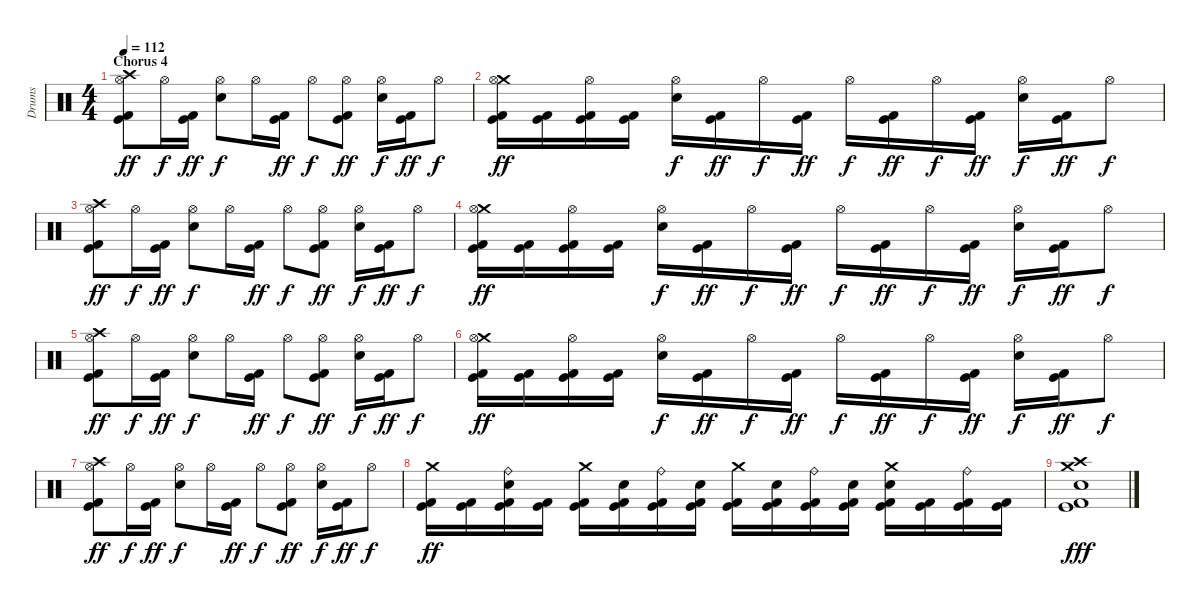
\track ("Drums" "Drums") {instrument percussion}
\staff {score}
\articulation defaults
\ts (4 4)
\section ("" "Chorus 4")
\tempo 112
\clef neutral
\ks c
("Crash high (hit)" "Hi-Hat (open)" "Kick (hit)" "Kick (hit) 2").8{dy ff} "Hi-Hat (open)".16{dy f} ("Kick (hit)" "Kick (hit) 2").16{dy ff} ("Hi-Hat (open)" "Snare (hit) 2").8{dy f} "Hi-Hat (open)".16 ("Kick (hit)" "Kick (hit) 2").16{dy ff} "Hi-Hat (open)".8{dy f} ("Hi-Hat (open)" "Kick (hit)" "Kick (hit) 2").8{dy ff} ("Hi-Hat (open)" "Snare (hit) 2").16{dy f} ("Kick (hit)" "Kick (hit) 2").16{dy ff} "Hi-Hat (open)".8{dy f} |
("Crash medium (hit)" "Hi-Hat (open)" "Kick (hit)" "Kick (hit) 2").16{dy ff} ("Kick (hit)" "Kick (hit) 2").16 ("Hi-Hat (open)" "Kick (hit)" "Kick (hit) 2").16 ("Kick (hit)" "Kick (hit) 2").16 ("Hi-Hat (open)" "Snare (hit) 2").16{dy f} ("Kick (hit)" "Kick (hit) 2").16{dy ff} "Hi-Hat (open)".16{dy f} ("Kick (hit)" "Kick (hit) 2").16{dy ff} "Hi-Hat (open)".16{dy f} ("Kick (hit)" "Kick (hit) 2").16{dy ff} "Hi-Hat (open)".16{dy f} ("Kick (hit)" "Kick (hit) 2").16{dy ff} ("Hi-Hat (open)" "Snare (hit) 2").16{dy f} ("Kick (hit)" "Kick (hit) 2").16{dy ff} "Hi-Hat (open)".8{dy f} |
("Crash high (hit)" "Hi-Hat (open)" "Kick (hit)" "Kick (hit) 2").8{dy ff} "Hi-Hat (open)".16{dy f} ("Kick (hit)" "Kick (hit) 2").16{dy ff} ("Hi-Hat (open)" "Snare (hit) 2").8{dy f} "Hi-Hat (open)".16 ("Kick (hit)" "Kick (hit) 2").16{dy ff} "Hi-Hat (open)".8{dy f} ("Hi-Hat (open)" "Kick (hit)" "Kick (hit) 2").8{dy ff} ("Hi-Hat (open)" "Snare (hit) 2").16{dy f} ("Kick (hit)" "Kick (hit) 2").16{dy ff} "Hi-Hat (open)".8{dy f} |
("Crash medium (hit)" "Hi-Hat (open)" "Kick (hit)" "Kick (hit) 2").16{dy ff} ("Kick (hit)" "Kick (hit) 2").16 ("Hi-Hat (open)" "Kick (hit)" "Kick (hit) 2").16 ("Kick (hit)" "Kick (hit) 2").16 ("Hi-Hat (open)" "Snare (hit) 2").16{dy f} ("Kick (hit)" "Kick (hit) 2").16{dy ff} "Hi-Hat (open)".16{dy f} ("Kick (hit)" "Kick (hit) 2").16{dy ff} "Hi-Hat (open)".16{dy f} ("Kick (hit)" "Kick (hit) 2").16{dy ff} "Hi-Hat (open)".16{dy f} ("Kick (hit)" "Kick (hit) 2").16{dy ff} ("Hi-Hat (open)" "Snare (hit) 2").16{dy f} ("Kick (hit)" "Kick (hit) 2").16{dy ff} "Hi-Hat (open)".8{dy f} |
("Crash high (hit)" "Hi-Hat (open)" "Kick (hit)" "Kick (hit) 2").8{dy ff} "Hi-Hat (open)".16{dy f} ("Kick (hit)" "Kick (hit) 2").16{dy ff} ("Hi-Hat (open)" "Snare (hit) 2").8{dy f} "Hi-Hat (open)".16 ("Kick (hit)" "Kick (hit) 2").16{dy ff} "Hi-Hat (open)".8{dy f} ("Hi-Hat (open)" "Kick (hit)" "Kick (hit) 2").8{dy ff} ("Hi-Hat (open)" "Snare (hit) 2").16{dy f} ("Kick (hit)" "Kick (hit) 2").16{dy ff} "Hi-Hat (open)".8{dy f} |
("Crash medium (hit)" "Hi-Hat (open)" "Kick (hit)" "Kick (hit) 2").16{dy ff} ("Kick (hit)" "Kick (hit) 2").16 ("Hi-Hat (open)" "Kick (hit)" "Kick (hit) 2").16 ("Kick (hit)" "Kick (hit) 2").16 ("Hi-Hat (open)" "Snare (hit) 2").16{dy f} ("Kick (hit)" "Kick (hit) 2").16{dy ff} "Hi-Hat (open)".16{dy f} ("Kick (hit)" "Kick (hit) 2").16{dy ff} "Hi-Hat (open)".16{dy f} ("Kick (hit)" "Kick (hit) 2").16{dy ff} "Hi-Hat (open)".16{dy f} ("Kick (hit)" "Kick (hit) 2").16{dy ff} ("Hi-Hat (open)" "Snare (hit) 2").16{dy f} ("Kick (hit)" "Kick (hit) 2").16{dy ff} "Hi-Hat (open)".8{dy f} |
("Crash high (hit)" "Hi-Hat (open)" "Kick (hit)" "Kick (hit) 2").8{dy ff} "Hi-Hat (open)".16{dy f} ("Kick (hit)" "Kick (hit) 2").16{dy ff} ("Hi-Hat (open)" "Snare (hit) 2").8{dy f} "Hi-Hat (open)".16 ("Kick (hit)" "Kick (hit) 2").16{dy ff} "Hi-Hat (open)".8{dy f} ("Hi-Hat (open)" "Kick (hit)" "Kick (hit) 2").8{dy ff} ("Hi-Hat (open)" "Snare (hit) 2").16{dy f} ("Kick (hit)" "Kick (hit) 2").16{dy ff} "Hi-Hat (open)".8{dy f} |
("Crash medium (hit)" "Kick (hit)" "Kick (hit) 2").16{dy ff} ("Kick (hit)" "Kick (hit) 2").16 ("Ride (bell)" "Snare (hit) 2" "Kick (hit)" "Kick (hit) 2").16 ("Kick (hit)" "Kick (hit) 2").16 ("Crash medium (hit)" "Kick (hit)" "Kick (hit) 2").16 ("Snare (hit) 2" "Kick (hit)" "Kick (hit) 2").16 ("Ride (bell)" "Kick (hit)" "Kick (hit) 2").16 ("Snare (hit) 2" "Kick (hit)" "Kick (hit) 2").16 ("Crash medium (hit)" "Kick (hit)" "Kick (hit) 2").16 ("Snare (hit) 2" "Kick (hit)" "Kick (hit) 2").16 ("Ride (bell)" "Kick (hit)" "Kick (hit) 2").16 ("Snare (hit) 2" "Kick (hit)" "Kick (hit) 2").16 ("Crash medium (hit)" "Snare (hit) 2" "Kick (hit)" "Kick (hit) 2").16 ("Kick (hit)" "Kick (hit) 2").16 ("Ride (bell)" "Kick (hit)" "Kick (hit) 2").16 ("Kick (hit)" "Kick (hit) 2").16 |
("Crash medium (hit)" "Crash high (hit)" "Snare (hit) 2" "Kick (hit)" "Kick (hit) 2").1{dy fff}
